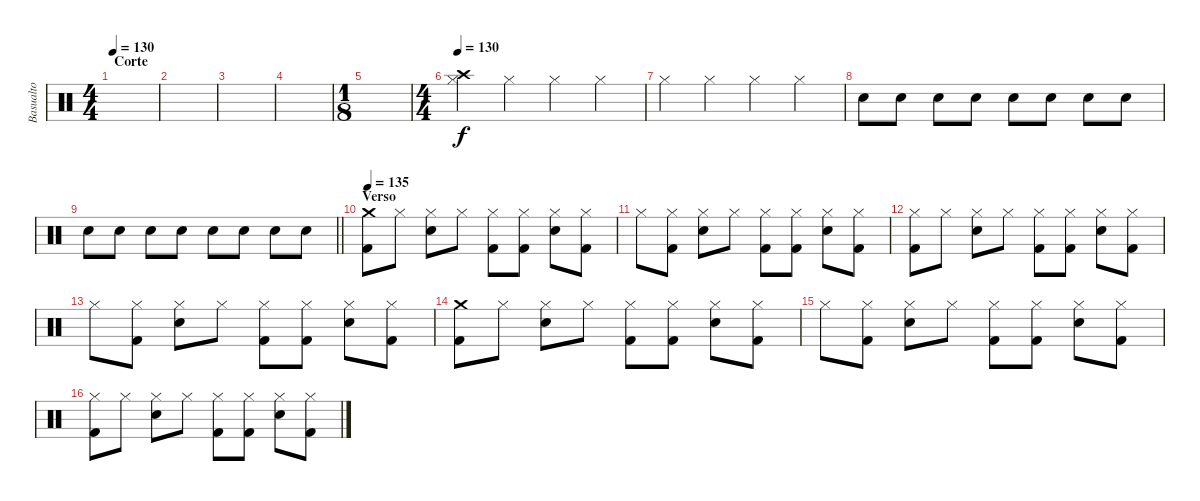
\track ("Basualto" "Basualto") {instrument percussion}
\staff {score}
\articulation defaults
\ts (4 4)
\section ("" "Corte")
\tempo 130
\clef neutral
\ks c
|
|
|
|
\ts (1 8)
|
\ts (4 4)
\tempo 130
("Hi-Hat (closed)" "Crash high (hit)").4 "Hi-Hat (closed)".4 "Hi-Hat (closed)".4 "Hi-Hat (closed)".4 |
"Hi-Hat (closed)".4 "Hi-Hat (closed)".4 "Hi-Hat (closed)".4 "Hi-Hat (closed)".4 |
"Snare (hit) 2".8{volume 8} "Snare (hit) 2".8{volume 16} "Snare (hit) 2".8 "Snare (hit) 2".8 "Snare (hit) 2".8 "Snare (hit) 2".8 "Snare (hit) 2".8 "Snare (hit) 2".8 |
\barLineRight lightlight "Snare (hit) 2".8 "Snare (hit) 2".8 "Snare (hit) 2".8 "Snare (hit) 2".8 "Snare (hit) 2".8 "Snare (hit) 2".8 "Snare (hit) 2".8 "Snare (hit) 2".8
|
\section ("" "Verso")
\tempo 135
("Crash medium (hit)" "Kick (hit) 2").8 "Hi-Hat (closed)".8 ("Hi-Hat (closed)" "Snare (hit) 2").8 "Hi-Hat (closed)".8 ("Hi-Hat (closed)" "Kick (hit) 2").8 ("Hi-Hat (closed)" "Kick (hit) 2").8 ("Hi-Hat (closed)" "Snare (hit) 2").8 ("Hi-Hat (closed)" "Kick (hit) 2").8 |
"Hi-Hat (closed)".8 ("Hi-Hat (closed)" "Kick (hit) 2").8 ("Hi-Hat (closed)" "Snare (hit) 2").8 "Hi-Hat (closed)".8 ("Hi-Hat (closed)" "Kick (hit) 2").8 ("Hi-Hat (closed)" "Kick (hit) 2").8 ("Hi-Hat (closed)" "Snare (hit) 2").8 ("Hi-Hat (closed)" "Kick (hit) 2").8 |
("Hi-Hat (closed)" "Kick (hit) 2").8 "Hi-Hat (closed)".8 ("Hi-Hat (closed)" "Snare (hit) 2").8 "Hi-Hat (closed)".8 ("Hi-Hat (closed)" "Kick (hit) 2").8 ("Hi-Hat (closed)" "Kick (hit) 2").8 ("Hi-Hat (closed)" "Snare (hit) 2").8 ("Hi-Hat (closed)" "Kick (hit) 2").8 |
"Hi-Hat (closed)".8 ("Hi-Hat (closed)" "Kick (hit) 2").8 ("Hi-Hat (closed)" "Snare (hit) 2").8 "Hi-Hat (closed)".8 ("Hi-Hat (closed)" "Kick (hit) 2").8 ("Hi-Hat (closed)" "Kick (hit) 2").8 ("Hi-Hat (closed)" "Snare (hit) 2").8 ("Hi-Hat (closed)" "Kick (hit) 2").8 |
("Crash medium (hit)" "Kick (hit) 2").8 "Hi-Hat (closed)".8 ("Hi-Hat (closed)" "Snare (hit) 2").8 "Hi-Hat (closed)".8 ("Hi-Hat (closed)" "Kick (hit) 2").8 ("Hi-Hat (closed)" "Kick (hit) 2").8 ("Hi-Hat (closed)" "Snare (hit) 2").8 ("Hi-Hat (closed)" "Kick (hit) 2").8 |
"Hi-Hat (closed)".8 ("Hi-Hat (closed)" "Kick (hit) 2").8 ("Hi-Hat (closed)" "Snare (hit) 2").8 "Hi-Hat (closed)".8 ("Hi-Hat (closed)" "Kick (hit) 2").8 ("Hi-Hat (closed)" "Kick (hit) 2").8 ("Hi-Hat (closed)" "Snare (hit) 2").8 ("Hi-Hat (closed)" "Kick (hit) 2").8 |
("Hi-Hat (closed)" "Kick (hit) 2").8 "Hi-Hat (closed)".8 ("Hi-Hat (closed)" "Snare (hit) 2").8 "Hi-Hat (closed)".8 ("Hi-Hat (closed)" "Kick (hit) 2").8 ("Hi-Hat (closed)" "Kick (hit) 2").8 ("Hi-Hat (closed)" "Snare (hit) 2").8 ("Hi-Hat (closed)" "Kick (hit) 2").8
